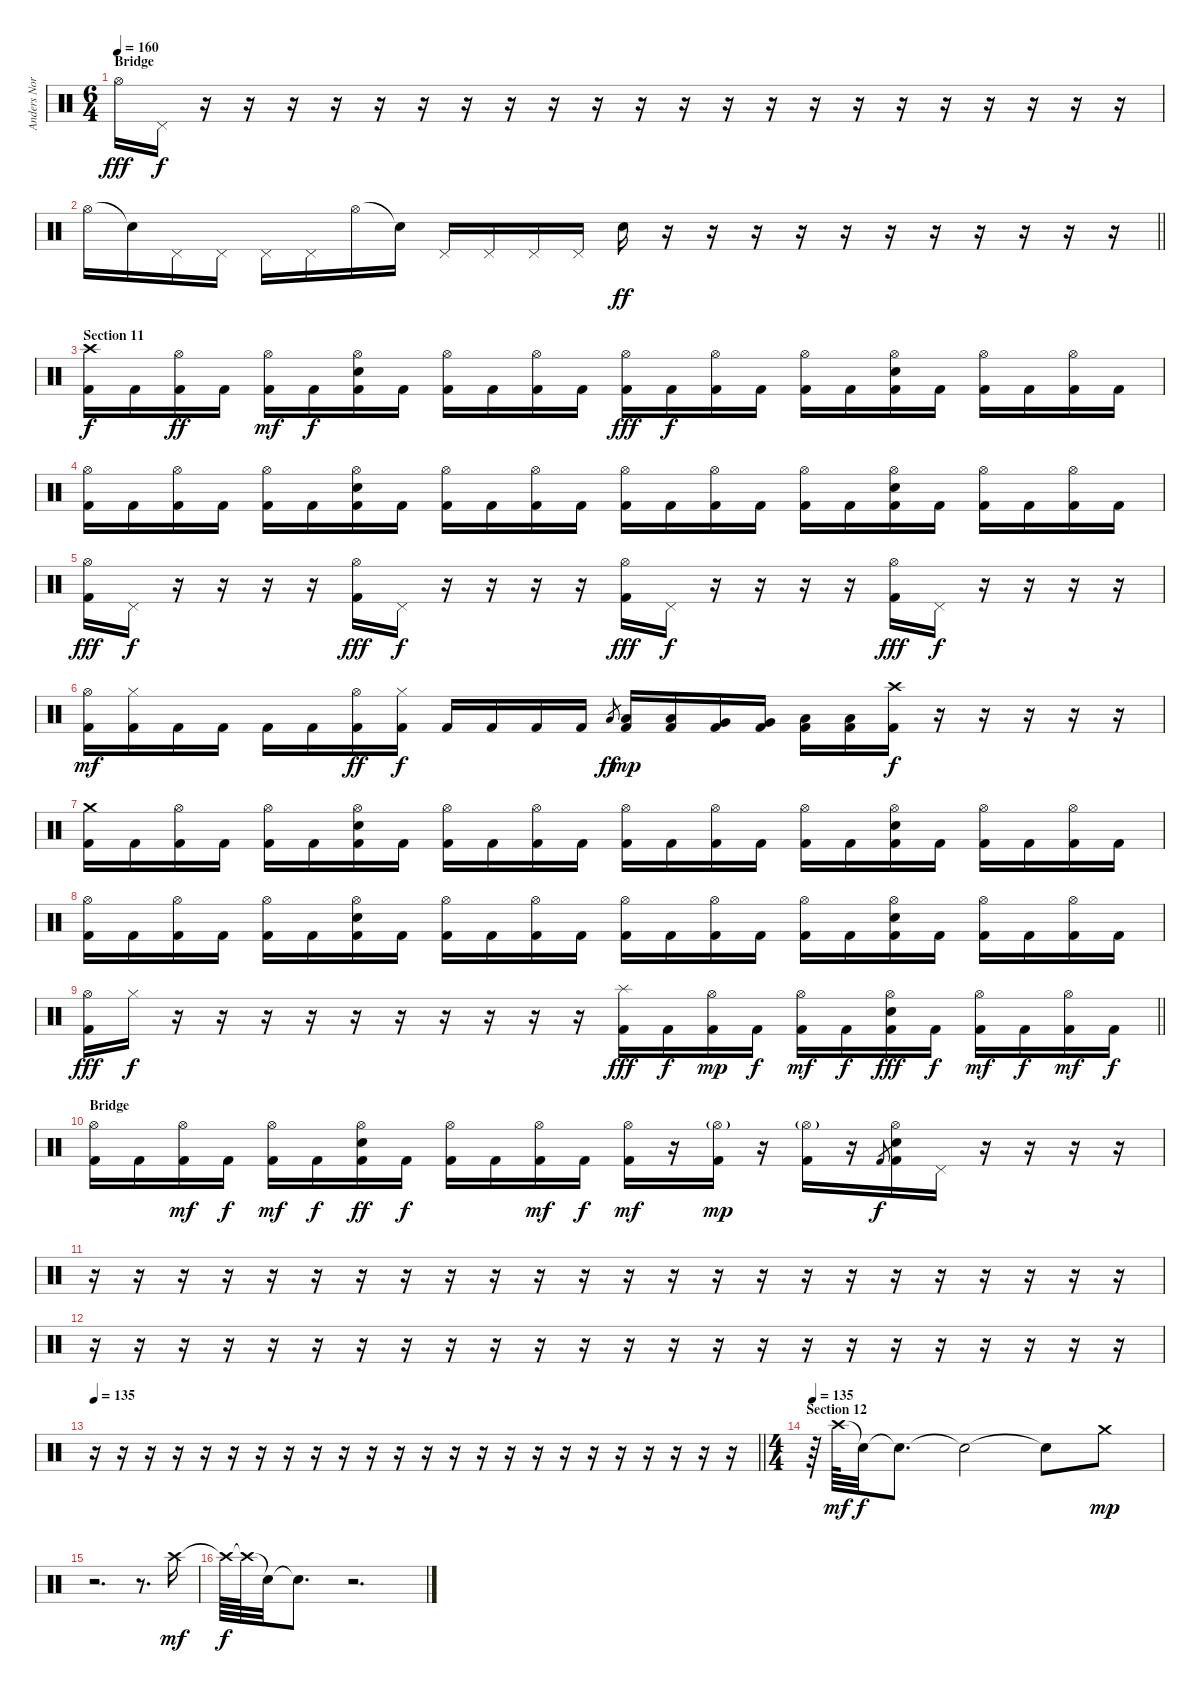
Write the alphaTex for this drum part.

\track ("Anders Nordin" "Anders Nor") {instrument percussion}
\staff {score}
\articulation defaults
\ts (6 4)
\section ("" "Bridge")
\tempo 160
\clef neutral
\ks c "Hi-Hat (open)".16{dy fff} "Pedal Hi-Hat (hit)".16{dy f}
r.16 r.16 r.16 r.16 r.16 r.16 r.16 r.16 r.16 r.16 r.16 r.16 r.16 r.16 r.16 r.16 r.16 r.16 r.16 r.16 r.16 r.16 |
\barLineRight lightlight "Hi-Hat (open)".16 "Snare (hit)"{t}.16 "Pedal Hi-Hat (hit)".16 "Pedal Hi-Hat (hit)".16 "Pedal Hi-Hat (hit)".16 "Pedal Hi-Hat (hit)".16 "Hi-Hat (open)".16 "Snare (hit)"{t}.16 "Pedal Hi-Hat (hit)".16 "Pedal Hi-Hat (hit)".16 "Pedal Hi-Hat (hit)".16 "Pedal Hi-Hat (hit)".16 "Snare (hit) 2".16{dy ff}
r.16 r.16 r.16 r.16 r.16 r.16 r.16 r.16 r.16 r.16 r.16 |
\section ("" "Section 11")
("Crash high (hit)" "Kick (hit) 2").16{dy f} "Kick (hit) 2".16 ("Hi-Hat (open)" "Kick (hit) 2").16{dy ff} "Kick (hit) 2".16 ("Hi-Hat (open)" "Kick (hit) 2").16{dy mf} "Kick (hit) 2".16{dy f} ("Hi-Hat (open)" "Snare (hit) 2" "Kick (hit) 2").16 "Kick (hit) 2".16 ("Hi-Hat (open)" "Kick (hit) 2").16 "Kick (hit) 2".16 ("Hi-Hat (open)" "Kick (hit) 2").16 "Kick (hit) 2".16 ("Hi-Hat (open)" "Kick (hit) 2").16{dy fff} "Kick (hit) 2".16{dy f} ("Hi-Hat (open)" "Kick (hit) 2").16 "Kick (hit) 2".16 ("Hi-Hat (open)" "Kick (hit) 2").16 "Kick (hit) 2".16 ("Hi-Hat (open)" "Snare (hit) 2" "Kick (hit) 2").16 "Kick (hit) 2".16 ("Hi-Hat (open)" "Kick (hit) 2").16 "Kick (hit) 2".16 ("Hi-Hat (open)" "Kick (hit) 2").16 "Kick (hit) 2".16 |
("Hi-Hat (open)" "Kick (hit) 2").16 "Kick (hit) 2".16 ("Hi-Hat (open)" "Kick (hit) 2").16 "Kick (hit) 2".16 ("Hi-Hat (open)" "Kick (hit) 2").16 "Kick (hit) 2".16 ("Hi-Hat (open)" "Snare (hit) 2" "Kick (hit) 2").16 "Kick (hit) 2".16 ("Hi-Hat (open)" "Kick (hit) 2").16 "Kick (hit) 2".16 ("Hi-Hat (open)" "Kick (hit) 2").16 "Kick (hit) 2".16 ("Hi-Hat (open)" "Kick (hit) 2").16 "Kick (hit) 2".16 ("Hi-Hat (open)" "Kick (hit) 2").16 "Kick (hit) 2".16 ("Hi-Hat (open)" "Kick (hit) 2").16 "Kick (hit) 2".16 ("Hi-Hat (open)" "Snare (hit) 2" "Kick (hit) 2").16 "Kick (hit) 2".16 ("Hi-Hat (open)" "Kick (hit) 2").16 "Kick (hit) 2".16 ("Hi-Hat (open)" "Kick (hit) 2").16 "Kick (hit) 2".16 |
("Hi-Hat (open)" "Kick (hit) 2").16{dy fff} "Pedal Hi-Hat (hit)".16{dy f} r.16 r.16 r.16 r.16 ("Hi-Hat (open)" "Kick (hit) 2").16{dy fff} "Pedal Hi-Hat (hit)".16{dy f} r.16 r.16 r.16 r.16 ("Hi-Hat (open)" "Kick (hit) 2").16{dy fff} "Pedal Hi-Hat (hit)".16{dy f} r.16 r.16 r.16 r.16 ("Hi-Hat (open)" "Kick (hit) 2").16{dy fff} "Pedal Hi-Hat (hit)".16{dy f} r.16 r.16 r.16 r.16 |
("Hi-Hat (open)" "Kick (hit) 2").16{dy mf} ("Hi-Hat (closed)" "Kick (hit) 2").16 "Kick (hit) 2".16 "Kick (hit) 2".16 "Kick (hit) 2".16 "Kick (hit) 2".16 ("Hi-Hat (open)" "Kick (hit) 2").16{dy ff} ("Hi-Hat (closed)" "Kick (hit) 2").16{dy f} "Kick (hit) 2".16 "Kick (hit) 2".16 "Kick (hit) 2".16 "Kick (hit) 2".16 "Low Tom (hit)".8{gr dy ff} ("Low Tom (hit)" "Kick (hit) 2").16{dy mp} ("Low Tom (hit)" "Kick (hit) 2").16 ("Very Low Tom (hit)" "Kick (hit) 2").16 ("Very Low Tom (hit)" "Kick (hit) 2").16 ("Low Floor Tom (hit)" "Kick (hit) 2").16 ("Low Floor Tom (hit)" "Kick (hit) 2").16 ("Crash high (hit)" "Kick (hit) 2").16{dy f} r.16 r.16 r.16 r.16 r.16 |
("Crash medium (hit)" "Kick (hit) 2").16 "Kick (hit) 2".16 ("Hi-Hat (open)" "Kick (hit) 2").16 "Kick (hit) 2".16 ("Hi-Hat (open)" "Kick (hit) 2").16 "Kick (hit) 2".16 ("Hi-Hat (open)" "Snare (hit) 2" "Kick (hit) 2").16 "Kick (hit) 2".16 ("Hi-Hat (open)" "Kick (hit) 2").16 "Kick (hit) 2".16 ("Hi-Hat (open)" "Kick (hit) 2").16 "Kick (hit) 2".16 ("Hi-Hat (open)" "Kick (hit) 2").16 "Kick (hit) 2".16 ("Hi-Hat (open)" "Kick (hit) 2").16 "Kick (hit) 2".16 ("Hi-Hat (open)" "Kick (hit) 2").16 "Kick (hit) 2".16 ("Hi-Hat (open)" "Snare (hit) 2" "Kick (hit) 2").16 "Kick (hit) 2".16 ("Hi-Hat (open)" "Kick (hit) 2").16 "Kick (hit) 2".16 ("Hi-Hat (open)" "Kick (hit) 2").16 "Kick (hit) 2".16 |
("Hi-Hat (open)" "Kick (hit) 2").16 "Kick (hit) 2".16 ("Hi-Hat (open)" "Kick (hit) 2").16 "Kick (hit) 2".16 ("Hi-Hat (open)" "Kick (hit) 2").16 "Kick (hit) 2".16 ("Hi-Hat (open)" "Snare (hit) 2" "Kick (hit) 2").16 "Kick (hit) 2".16 ("Hi-Hat (open)" "Kick (hit) 2").16 "Kick (hit) 2".16 ("Hi-Hat (open)" "Kick (hit) 2").16 "Kick (hit) 2".16 ("Hi-Hat (open)" "Kick (hit) 2").16 "Kick (hit) 2".16 ("Hi-Hat (open)" "Kick (hit) 2").16 "Kick (hit) 2".16 ("Hi-Hat (open)" "Kick (hit) 2").16 "Kick (hit) 2".16 ("Hi-Hat (open)" "Snare (hit) 2" "Kick (hit) 2").16 "Kick (hit) 2".16 ("Hi-Hat (open)" "Kick (hit) 2").16 "Kick (hit) 2".16 ("Hi-Hat (open)" "Kick (hit) 2").16 "Kick (hit) 2".16 |
\barLineRight lightlight
("Hi-Hat (open)" "Kick (hit) 2").16{dy fff} "Hi-Hat (closed)".16{dy f} r.16 r.16 r.16 r.16 r.16 r.16 r.16 r.16 r.16 r.16 ("Splash (hit)" "Kick (hit) 2").16{dy fff} "Kick (hit) 2".16{dy f} ("Hi-Hat (open)" "Kick (hit) 2").16{dy mp} "Kick (hit) 2".16{dy f} ("Hi-Hat (open)" "Kick (hit) 2").16{dy mf} "Kick (hit) 2".16{dy f} ("Hi-Hat (open)" "Snare (hit) 2" "Kick (hit) 2").16{dy fff} "Kick (hit) 2".16{dy f} ("Hi-Hat (open)" "Kick (hit) 2").16{dy mf} "Kick (hit) 2".16{dy f} ("Hi-Hat (open)" "Kick (hit) 2").16{dy mf} "Kick (hit) 2".16{dy f} |
\section ("" "Bridge")
("Hi-Hat (open)" "Kick (hit) 2").16 "Kick (hit) 2".16 ("Hi-Hat (open)" "Kick (hit) 2").16{dy mf} "Kick (hit) 2".16{dy f} ("Hi-Hat (open)" "Kick (hit) 2").16{dy mf} "Kick (hit) 2".16{dy f} ("Hi-Hat (open)" "Snare (hit) 2" "Kick (hit) 2").16{dy ff} "Kick (hit) 2".16{dy f} ("Hi-Hat (open)" "Kick (hit) 2").16 "Kick (hit) 2".16 ("Hi-Hat (open)" "Kick (hit) 2").16{dy mf} "Kick (hit) 2".16{dy f} ("Hi-Hat (open)" "Kick (hit) 2").16{dy mf} r.16 ("Hi-Hat (open)"{g} "Kick (hit) 2").16{dy mp} r.16 ("Hi-Hat (open)"{g} "Kick (hit) 2").16 r.16 "Kick (hit) 2".8{gr dy f} ("Hi-Hat (open)" "Snare (hit) 2" "Kick (hit) 2").16 "Pedal Hi-Hat (hit)".16 r.16 r.16 r.16 r.16 |
r.16 r.16 r.16 r.16 r.16 r.16 r.16 r.16 r.16 r.16 r.16 r.16 r.16 r.16 r.16 r.16 r.16 r.16 r.16 r.16 r.16 r.16 r.16 r.16 |
r.16 r.16 r.16 r.16 r.16 r.16 r.16 r.16 r.16 r.16 r.16 r.16 r.16 r.16 r.16 r.16 r.16 r.16 r.16 r.16 r.16 r.16 r.16 r.16 |
\tempo 135
\barLineRight lightlight
r.16{volume 0} r.16 r.16 r.16 r.16 r.16 r.16 r.16 r.16 r.16 r.16 r.16 r.16 r.16 r.16 r.16 r.16 r.16 r.16 r.16 r.16 r.16 r.16 r.16{volume 0} |
\ts (4 4)
\section ("" "Section 12")
\tempo 135
r.64{volume 0} "Crash high (hit)".64{dy mf volume 16} "Snare (hit)"{t}.32{dy f} "Snare (hit)"{t}.8{d} "Snare (hit)"{t}.2 "Snare (hit)"{t}.8{volume 0} "Crash medium (hit)".8{dy mp volume 16} |
r.2{d} r.8{d volume 0} "Crash high (hit)".16{dy mf volume 16} |
"Crash high (hit)"{t}.64{dy f} "Crash high (hit)"{t}.64 "Snare (hit)"{t}.32 "Snare (hit)"{t}.8{d} r.2{d}
